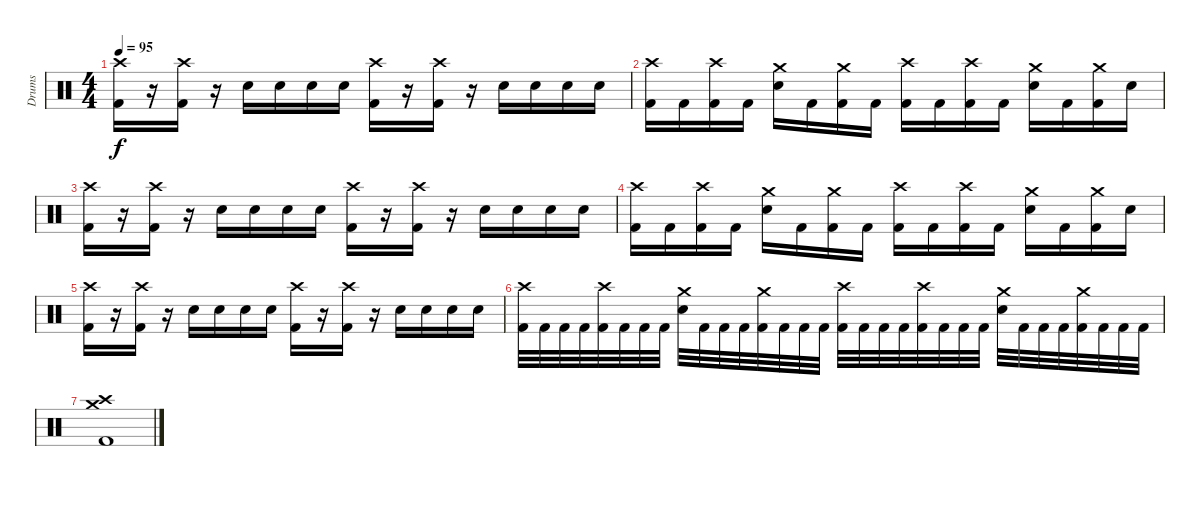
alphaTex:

\track ("Drums" "Drums") {instrument percussion}
\staff {score}
\articulation defaults
\ts (4 4)
\tempo 95
\clef neutral
\ks c
("Crash high (hit)" "Kick (hit) 2").16{dy f} r.16 ("Crash high (hit)" "Kick (hit) 2").16 r.16 "Electric Snare (hit)".16 "Electric Snare (hit)".16 "Electric Snare (hit)".16 "Electric Snare (hit)".16 ("Crash high (hit)" "Kick (hit) 2").16 r.16 ("Crash high (hit)" "Kick (hit) 2").16 r.16 "Electric Snare (hit)".16 "Electric Snare (hit)".16 "Electric Snare (hit)".16 "Electric Snare (hit)".16 |
("Crash high (hit)" "Kick (hit) 2").16 "Kick (hit) 2".16 ("Crash high (hit)" "Kick (hit) 2").16 "Kick (hit) 2".16 ("Crash medium (hit)" "Electric Snare (hit)").16 "Kick (hit) 2".16 ("Crash medium (hit)" "Kick (hit) 2").16 "Kick (hit) 2".16 ("Crash high (hit)" "Kick (hit) 2").16 "Kick (hit) 2".16 ("Crash high (hit)" "Kick (hit) 2").16 "Kick (hit) 2".16 ("Crash medium (hit)" "Electric Snare (hit)").16 "Kick (hit) 2".16 ("Crash medium (hit)" "Kick (hit) 2").16 "Electric Snare (hit)".16 |
("Crash high (hit)" "Kick (hit) 2").16 r.16 ("Crash high (hit)" "Kick (hit) 2").16 r.16 "Electric Snare (hit)".16 "Electric Snare (hit)".16 "Electric Snare (hit)".16 "Electric Snare (hit)".16 ("Crash high (hit)" "Kick (hit) 2").16 r.16 ("Crash high (hit)" "Kick (hit) 2").16 r.16 "Electric Snare (hit)".16 "Electric Snare (hit)".16 "Electric Snare (hit)".16 "Electric Snare (hit)".16 |
("Crash high (hit)" "Kick (hit) 2").16 "Kick (hit) 2".16 ("Crash high (hit)" "Kick (hit) 2").16 "Kick (hit) 2".16 ("Crash medium (hit)" "Electric Snare (hit)").16 "Kick (hit) 2".16 ("Crash medium (hit)" "Kick (hit) 2").16 "Kick (hit) 2".16 ("Crash high (hit)" "Kick (hit) 2").16 "Kick (hit) 2".16 ("Crash high (hit)" "Kick (hit) 2").16 "Kick (hit) 2".16 ("Crash medium (hit)" "Electric Snare (hit)").16 "Kick (hit) 2".16 ("Crash medium (hit)" "Kick (hit) 2").16 "Electric Snare (hit)".16 |
("Crash high (hit)" "Kick (hit) 2").16 r.16 ("Crash high (hit)" "Kick (hit) 2").16 r.16 "Electric Snare (hit)".16 "Electric Snare (hit)".16 "Electric Snare (hit)".16 "Electric Snare (hit)".16 ("Crash high (hit)" "Kick (hit) 2").16 r.16 ("Crash high (hit)" "Kick (hit) 2").16 r.16 "Electric Snare (hit)".16 "Electric Snare (hit)".16 "Electric Snare (hit)".16 "Electric Snare (hit)".16 |
("Crash high (hit)" "Kick (hit) 2").32 "Kick (hit) 2".32 "Kick (hit) 2".32 "Kick (hit) 2".32 ("Crash high (hit)" "Kick (hit) 2").32 "Kick (hit) 2".32 "Kick (hit) 2".32 "Kick (hit) 2".32 ("Crash medium (hit)" "Electric Snare (hit)").32 "Kick (hit) 2".32 "Kick (hit) 2".32 "Kick (hit) 2".32 ("Crash medium (hit)" "Kick (hit) 2").32 "Kick (hit) 2".32 "Kick (hit) 2".32 "Kick (hit) 2".32 ("Crash high (hit)" "Kick (hit) 2").32 "Kick (hit) 2".32 "Kick (hit) 2".32 "Kick (hit) 2".32 ("Crash high (hit)" "Kick (hit) 2").32 "Kick (hit) 2".32 "Kick (hit) 2".32 "Kick (hit) 2".32 ("Crash medium (hit)" "Electric Snare (hit)").32 "Kick (hit) 2".32 "Kick (hit) 2".32 "Kick (hit) 2".32 ("Crash medium (hit)" "Kick (hit) 2").32 "Kick (hit) 2".32 "Kick (hit) 2".32 "Kick (hit) 2".32 |
("Crash high (hit)" "Crash medium (hit)" "Kick (hit) 2").1
